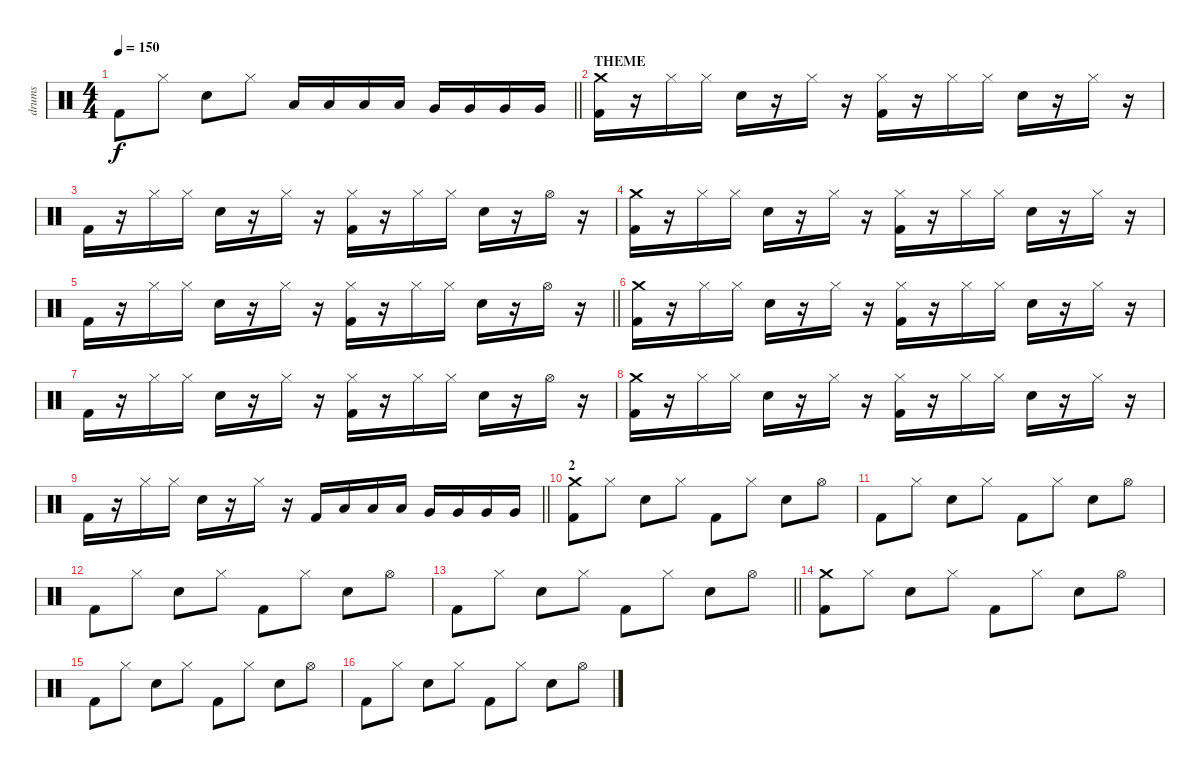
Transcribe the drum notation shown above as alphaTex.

\track ("drums" "drums") {instrument percussion}
\staff {score}
\articulation defaults
\ts (4 4)
\tempo 150
\clef neutral
\barLineRight lightlight
\ks c "Kick (hit) 2".8{dy f} "Hi-Hat (closed)".8 "Electric Snare (hit)".8 "Hi-Hat (closed)".8 "Low Floor Tom (hit)".16 "Low Floor Tom (hit)".16 "Low Floor Tom (hit)".16 "Low Floor Tom (hit)".16 "Very Low Tom (hit)".16 "Very Low Tom (hit)".16 "Very Low Tom (hit)".16 "Very Low Tom (hit)".16
|
\section ("" "THEME")
("Kick (hit) 2" "Crash medium (hit)").16 r.16 "Hi-Hat (closed)".16 "Hi-Hat (closed)".16 "Electric Snare (hit)".16 r.16 "Hi-Hat (closed)".16 r.16 ("Hi-Hat (closed)" "Kick (hit) 2").16 r.16 "Hi-Hat (closed)".16 "Hi-Hat (closed)".16 "Electric Snare (hit)".16 r.16 "Hi-Hat (closed)".16 r.16 |
"Kick (hit) 2".16 r.16 "Hi-Hat (closed)".16 "Hi-Hat (closed)".16 "Electric Snare (hit)".16 r.16 "Hi-Hat (closed)".16 r.16 ("Hi-Hat (closed)" "Kick (hit) 2").16 r.16 "Hi-Hat (closed)".16 "Hi-Hat (closed)".16 "Electric Snare (hit)".16 r.16 "Hi-Hat (open)".16 r.16 |
("Kick (hit) 2" "Crash medium (hit)").16 r.16 "Hi-Hat (closed)".16 "Hi-Hat (closed)".16 "Electric Snare (hit)".16 r.16 "Hi-Hat (closed)".16 r.16 ("Hi-Hat (closed)" "Kick (hit) 2").16 r.16 "Hi-Hat (closed)".16 "Hi-Hat (closed)".16 "Electric Snare (hit)".16 r.16 "Hi-Hat (closed)".16 r.16 |
\barLineRight lightlight "Kick (hit) 2".16
r.16 "Hi-Hat (closed)".16 "Hi-Hat (closed)".16 "Electric Snare (hit)".16 r.16 "Hi-Hat (closed)".16 r.16 ("Hi-Hat (closed)" "Kick (hit) 2").16 r.16 "Hi-Hat (closed)".16 "Hi-Hat (closed)".16 "Electric Snare (hit)".16 r.16 "Hi-Hat (open)".16 r.16 |
("Kick (hit) 2" "Crash medium (hit)").16 r.16 "Hi-Hat (closed)".16 "Hi-Hat (closed)".16 "Electric Snare (hit)".16 r.16 "Hi-Hat (closed)".16 r.16 ("Hi-Hat (closed)" "Kick (hit) 2").16 r.16 "Hi-Hat (closed)".16 "Hi-Hat (closed)".16 "Electric Snare (hit)".16 r.16 "Hi-Hat (closed)".16 r.16 |
"Kick (hit) 2".16 r.16 "Hi-Hat (closed)".16 "Hi-Hat (closed)".16 "Electric Snare (hit)".16 r.16 "Hi-Hat (closed)".16 r.16 ("Hi-Hat (closed)" "Kick (hit) 2").16 r.16 "Hi-Hat (closed)".16 "Hi-Hat (closed)".16 "Electric Snare (hit)".16 r.16 "Hi-Hat (open)".16 r.16 |
("Kick (hit) 2" "Crash medium (hit)").16 r.16 "Hi-Hat (closed)".16 "Hi-Hat (closed)".16 "Electric Snare (hit)".16 r.16 "Hi-Hat (closed)".16 r.16 ("Hi-Hat (closed)" "Kick (hit) 2").16 r.16 "Hi-Hat (closed)".16 "Hi-Hat (closed)".16 "Electric Snare (hit)".16 r.16 "Hi-Hat (closed)".16 r.16 |
\barLineRight lightlight "Kick (hit) 2".16
r.16 "Hi-Hat (closed)".16 "Hi-Hat (closed)".16 "Electric Snare (hit)".16 r.16 "Hi-Hat (closed)".16 r.16 "Kick (hit) 2".16 "Low Floor Tom (hit)".16 "Low Floor Tom (hit)".16 "Low Floor Tom (hit)".16 "Very Low Tom (hit)".16 "Very Low Tom (hit)".16 "Very Low Tom (hit)".16 "Very Low Tom (hit)".16 |
\section ("" "2")
("Kick (hit) 2" "Crash medium (hit)").8 "Hi-Hat (closed)".8 "Electric Snare (hit)".8 "Hi-Hat (closed)".8 "Kick (hit) 2".8 "Hi-Hat (closed)".8 "Electric Snare (hit)".8 "Hi-Hat (open)".8 |
"Kick (hit) 2".8 "Hi-Hat (closed)".8 "Electric Snare (hit)".8 "Hi-Hat (closed)".8 "Kick (hit) 2".8 "Hi-Hat (closed)".8 "Electric Snare (hit)".8 "Hi-Hat (open)".8 |
"Kick (hit) 2".8 "Hi-Hat (closed)".8 "Electric Snare (hit)".8 "Hi-Hat (closed)".8 "Kick (hit) 2".8 "Hi-Hat (closed)".8 "Electric Snare (hit)".8 "Hi-Hat (open)".8 |
\barLineRight lightlight "Kick (hit) 2".8 "Hi-Hat (closed)".8 "Electric Snare (hit)".8 "Hi-Hat (closed)".8 "Kick (hit) 2".8 "Hi-Hat (closed)".8 "Electric Snare (hit)".8 "Hi-Hat (open)".8
|
("Kick (hit) 2" "Crash medium (hit)").8 "Hi-Hat (closed)".8 "Electric Snare (hit)".8 "Hi-Hat (closed)".8 "Kick (hit) 2".8 "Hi-Hat (closed)".8 "Electric Snare (hit)".8 "Hi-Hat (open)".8 |
"Kick (hit) 2".8 "Hi-Hat (closed)".8 "Electric Snare (hit)".8 "Hi-Hat (closed)".8 "Kick (hit) 2".8 "Hi-Hat (closed)".8 "Electric Snare (hit)".8 "Hi-Hat (open)".8 |
"Kick (hit) 2".8 "Hi-Hat (closed)".8 "Electric Snare (hit)".8 "Hi-Hat (closed)".8 "Kick (hit) 2".8 "Hi-Hat (closed)".8 "Electric Snare (hit)".8 "Hi-Hat (open)".8
